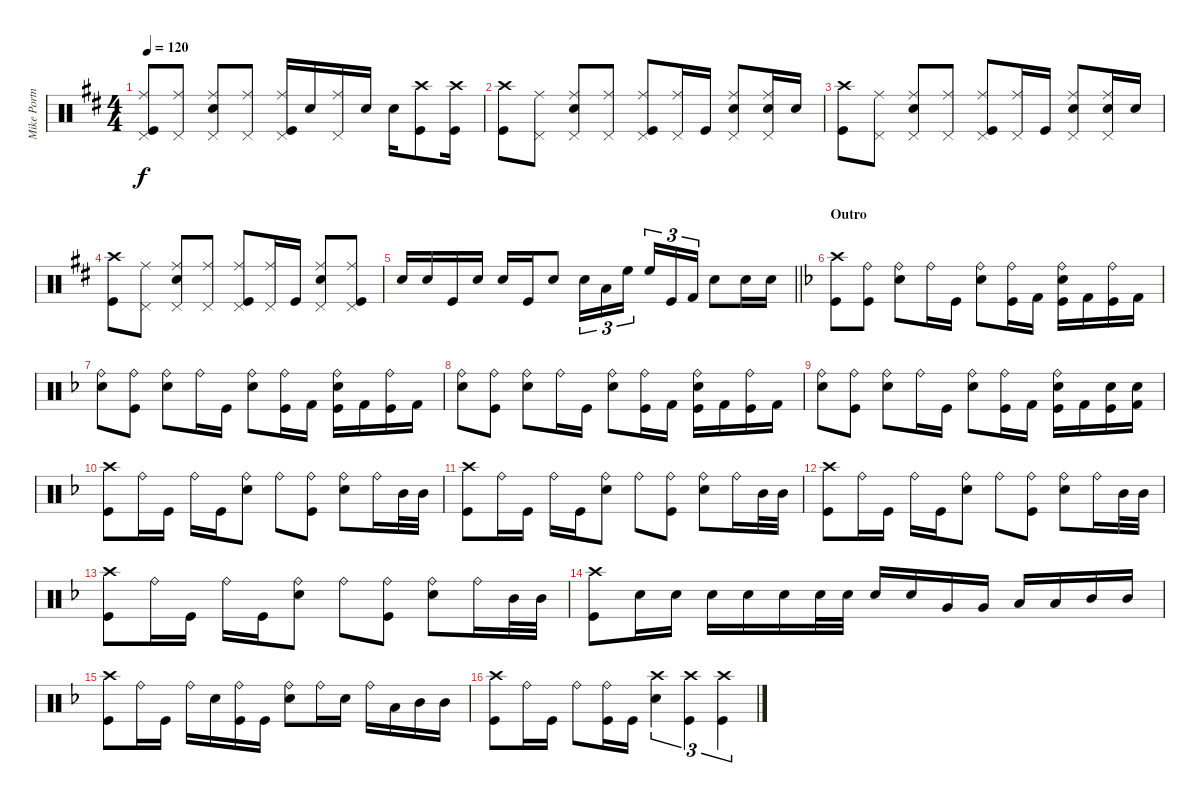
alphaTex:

\track ("Mike Portnoy" "Mike Portn") {instrument percussion}
\staff {score}
\articulation defaults
\ts (4 4)
\tempo 120
\clef neutral
\ks bminor
("Pedal Hi-Hat (hit)" "Ride (middle)" "Kick (hit)").8{dy f} ("Pedal Hi-Hat (hit)" "Ride (middle)").8 ("Pedal Hi-Hat (hit)" "Ride (middle)" "Snare (hit) 2").8 ("Pedal Hi-Hat (hit)" "Ride (middle)").8 ("Pedal Hi-Hat (hit)" "Ride (middle)" "Kick (hit)").16 "Snare (hit) 2".16 ("Pedal Hi-Hat (hit)" "Ride (middle)").16 "Snare (hit) 2".16 "Snare (hit) 2".16 ("Crash high (hit)" "Kick (hit)").8 ("Crash high (hit)" "Kick (hit)").16 |
("Crash high (hit)" "Kick (hit)").8 ("Pedal Hi-Hat (hit)" "Ride (middle)").8 ("Pedal Hi-Hat (hit)" "Ride (middle)" "Snare (hit) 2").8 ("Pedal Hi-Hat (hit)" "Ride (middle)").8 ("Pedal Hi-Hat (hit)" "Ride (middle)" "Kick (hit)").8 ("Pedal Hi-Hat (hit)" "Ride (middle)").16 "Kick (hit)".16 ("Pedal Hi-Hat (hit)" "Ride (middle)" "Snare (hit) 2").8 ("Pedal Hi-Hat (hit)" "Ride (middle)" "Snare (hit) 2").16 "Snare (hit) 2".16 |
("Crash high (hit)" "Kick (hit)").8 ("Pedal Hi-Hat (hit)" "Ride (middle)").8 ("Pedal Hi-Hat (hit)" "Ride (middle)" "Snare (hit) 2").8 ("Pedal Hi-Hat (hit)" "Ride (middle)").8 ("Pedal Hi-Hat (hit)" "Ride (middle)" "Kick (hit)").8 ("Pedal Hi-Hat (hit)" "Ride (middle)").16 "Kick (hit)".16 ("Pedal Hi-Hat (hit)" "Ride (middle)" "Snare (hit) 2").8 ("Pedal Hi-Hat (hit)" "Ride (middle)" "Snare (hit) 2").16 "Snare (hit) 2".16 |
("Crash high (hit)" "Kick (hit)").8 ("Pedal Hi-Hat (hit)" "Ride (middle)").8 ("Pedal Hi-Hat (hit)" "Ride (middle)" "Snare (hit) 2").8 ("Pedal Hi-Hat (hit)" "Ride (middle)").8 ("Pedal Hi-Hat (hit)" "Ride (middle)" "Kick (hit)").8 ("Pedal Hi-Hat (hit)" "Ride (middle)").16 "Kick (hit)".16 ("Pedal Hi-Hat (hit)" "Ride (middle)" "Snare (hit) 2").8 ("Pedal Hi-Hat (hit)" "Ride (middle)" "Kick (hit)").8 |
\barLineRight lightlight "Electric Snare (hit)".16 "Snare (hit) 2".16 "Kick (hit)".16 "Electric Snare (hit)".16 "Snare (hit) 2".16 "Kick (hit)".16 "Electric Snare (hit)".8 "Snare (hit) 2".16{tu (3 2)} "Low Tom (hit)".16{tu (3 2)} "High Floor Tom (hit)".16{tu (3 2) beam splitsecondary} "High Floor Tom (hit)".16{tu (3 2)} "Kick (hit)".16{tu (3 2)} "Kick (hit) 2".16{tu (3 2)} "Electric Snare (hit)".8 "Snare (hit) 2".16 "Snare (hit) 2".16
|
\section ("" "Outro")
\ks dminor
("Crash high (hit)" "Kick (hit)").8 ("Ride (bell)" "Kick (hit)").8 ("Ride (bell)" "Snare (hit) 2").8 "Ride (bell)".16 "Kick (hit)".16 ("Ride (bell)" "Snare (hit) 2").8 ("Ride (bell)" "Kick (hit)").16 "Kick (hit) 2".16 ("Ride (bell)" "Snare (hit) 2" "Kick (hit)").16 "Kick (hit) 2".16 ("Ride (bell)" "Kick (hit)").16 "Kick (hit) 2".16 |
("Snare (hit) 2" "Ride (bell)").8 ("Ride (bell)" "Kick (hit)").8 ("Ride (bell)" "Snare (hit) 2").8 "Ride (bell)".16 "Kick (hit)".16 ("Ride (bell)" "Snare (hit) 2").8 ("Ride (bell)" "Kick (hit)").16 "Kick (hit) 2".16 ("Ride (bell)" "Snare (hit) 2" "Kick (hit)").16 "Kick (hit) 2".16 ("Ride (bell)" "Kick (hit)").16 "Kick (hit) 2".16 |
("Snare (hit) 2" "Ride (bell)").8 ("Ride (bell)" "Kick (hit)").8 ("Ride (bell)" "Snare (hit) 2").8 "Ride (bell)".16 "Kick (hit)".16 ("Ride (bell)" "Snare (hit) 2").8 ("Ride (bell)" "Kick (hit)").16 "Kick (hit) 2".16 ("Ride (bell)" "Snare (hit) 2" "Kick (hit)").16 "Kick (hit) 2".16 ("Ride (bell)" "Kick (hit)").16 "Kick (hit) 2".16 |
("Snare (hit) 2" "Ride (bell)").8 ("Ride (bell)" "Kick (hit)").8 ("Ride (bell)" "Snare (hit) 2").8 "Ride (bell)".16 "Kick (hit)".16 ("Ride (bell)" "Snare (hit) 2").8 ("Ride (bell)" "Kick (hit)").16 "Kick (hit) 2".16 ("Ride (bell)" "Snare (hit) 2" "Kick (hit)").16 "Kick (hit) 2".16 ("Snare (hit) 2" "Kick (hit)").16 ("Snare (hit) 2" "Kick (hit) 2").16 |
("Crash high (hit)" "Kick (hit)").8 "Ride (bell)".16 "Kick (hit)".16 "Ride (bell)".16 "Kick (hit)".16 ("Ride (bell)" "Snare (hit) 2").8 "Ride (bell)".8 ("Ride (bell)" "Kick (hit)").8 ("Ride (bell)" "Snare (hit) 2").8 "Ride (bell)".16 "Mid Tom (hit)".32 "Mid Tom (hit)".32 |
("Crash high (hit)" "Kick (hit)").8 "Ride (bell)".16 "Kick (hit)".16 "Ride (bell)".16 "Kick (hit)".16 ("Ride (bell)" "Snare (hit) 2").8 "Ride (bell)".8 ("Ride (bell)" "Kick (hit)").8 ("Ride (bell)" "Snare (hit) 2").8 "Ride (bell)".16 "Mid Tom (hit)".32 "Mid Tom (hit)".32 |
("Crash high (hit)" "Kick (hit)").8 "Ride (bell)".16 "Kick (hit)".16 "Ride (bell)".16 "Kick (hit)".16 ("Ride (bell)" "Snare (hit) 2").8 "Ride (bell)".8 ("Ride (bell)" "Kick (hit)").8 ("Ride (bell)" "Snare (hit) 2").8 "Ride (bell)".16 "Mid Tom (hit)".32 "Mid Tom (hit)".32 |
("Crash high (hit)" "Kick (hit)").8 "Ride (bell)".16 "Kick (hit)".16 "Ride (bell)".16 "Kick (hit)".16 ("Ride (bell)" "Snare (hit) 2").8 "Ride (bell)".8 ("Ride (bell)" "Kick (hit)").8 ("Ride (bell)" "Snare (hit) 2").8 "Ride (bell)".16 "Mid Tom (hit)".32 "Mid Tom (hit)".32 |
("Kick (hit)" "Crash high (hit)").8 "Snare (hit) 2".16 "Snare (hit) 2".16 "Snare (hit) 2".16 "Snare (hit) 2".16 "Snare (hit) 2".16 "Snare (hit) 2".32 "Snare (hit) 2".32 "Snare (hit) 2".16 "Snare (hit) 2".16 "Very Low Tom (hit)".16 "Very Low Tom (hit)".16 "Low Tom (hit)".16 "Low Tom (hit)".16 "Mid Tom (hit)".16 "Mid Tom (hit)".16 |
("Crash high (hit)" "Kick (hit)").8 "Ride (bell)".16 "Kick (hit)".16 "Ride (bell)".16 "Electric Snare (hit)".16 ("Ride (bell)" "Kick (hit)").16 "Kick (hit)".16 ("Ride (bell)" "Snare (hit) 2").8 "Ride (bell)".16 "Electric Snare (hit)".16 "Ride (bell)".16 "Low Tom (hit)".16 "Mid Tom (hit)".16 "Mid Tom (hit)".16 |
("Crash high (hit)" "Kick (hit)").8 "Ride (bell)".16 "Kick (hit)".16 "Ride (bell)".8 ("Ride (bell)" "Kick (hit)").16 "Kick (hit)".16 ("Crash high (hit)" "Snare (hit) 2").4{tu (3 2)} ("Crash high (hit)" "Kick (hit)").4{tu (3 2)} ("Crash high (hit)" "Kick (hit)").4{tu (3 2)}
